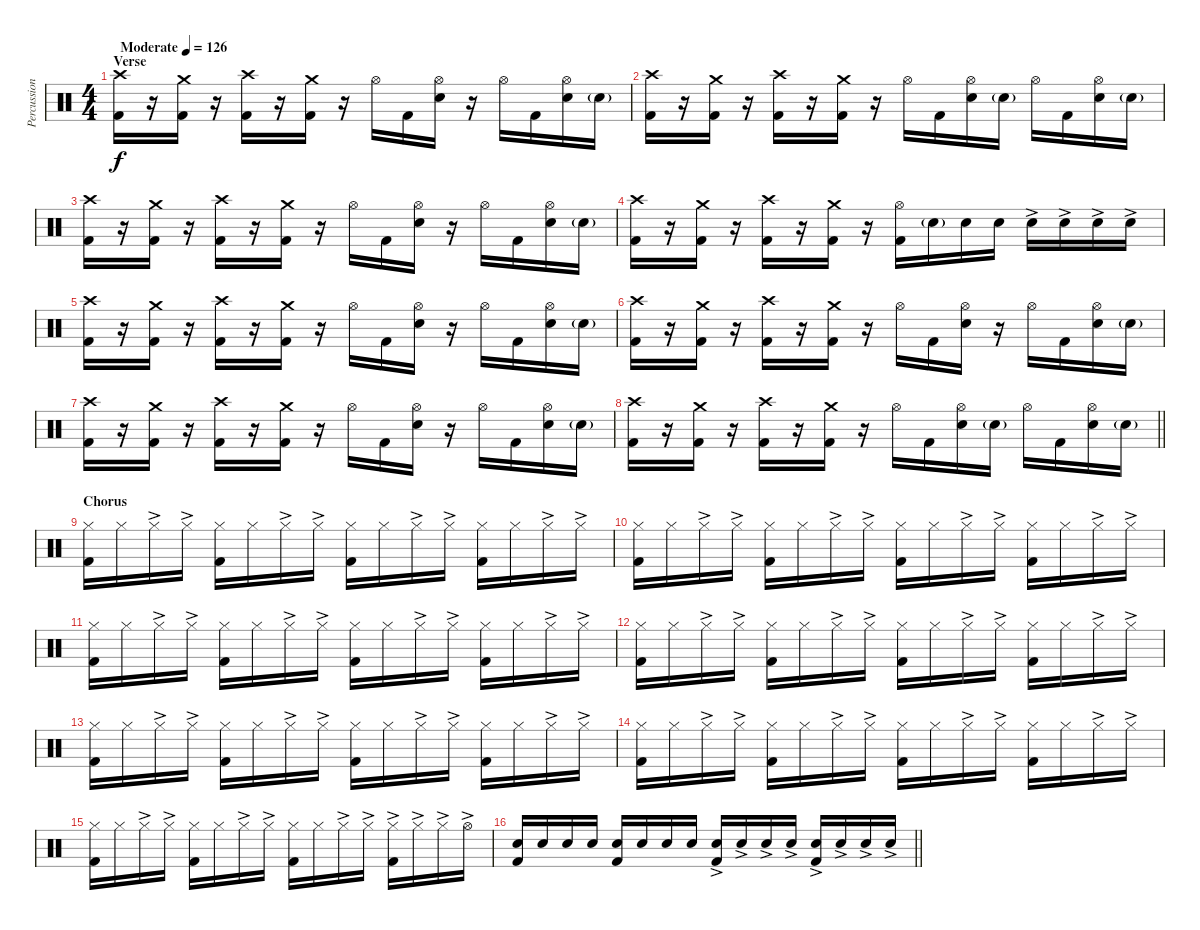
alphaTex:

\track ("Percussion" "Percussion") {instrument percussion}
\staff {score}
\articulation defaults
\ts (4 4)
\section ("" "Verse")
\tempo (126 "Moderate")
\clef neutral
\ks c
("Crash high (hit)" "Kick (hit) 2").16{dy f} r.16 ("Crash medium (hit)" "Kick (hit) 2").16 r.16 ("Crash high (hit)" "Kick (hit) 2").16 r.16 ("Crash medium (hit)" "Kick (hit) 2").16 r.16 "Hi-Hat (open)".16 "Kick (hit) 2".16 ("Hi-Hat (open)" "Electric Snare (hit)").16 r.16 "Hi-Hat (open)".16 "Kick (hit) 2".16 ("Hi-Hat (open)" "Electric Snare (hit)").16 "Electric Snare (hit)"{g}.16 |
("Crash high (hit)" "Kick (hit) 2").16 r.16 ("Crash medium (hit)" "Kick (hit) 2").16 r.16 ("Crash high (hit)" "Kick (hit) 2").16 r.16 ("Crash medium (hit)" "Kick (hit) 2").16 r.16 "Hi-Hat (open)".16 "Kick (hit) 2".16 ("Hi-Hat (open)" "Electric Snare (hit)").16 "Electric Snare (hit)"{g}.16 "Hi-Hat (open)".16 "Kick (hit) 2".16 ("Hi-Hat (open)" "Electric Snare (hit)").16 "Electric Snare (hit)"{g}.16 |
("Crash high (hit)" "Kick (hit) 2").16 r.16 ("Crash medium (hit)" "Kick (hit) 2").16 r.16 ("Crash high (hit)" "Kick (hit) 2").16 r.16 ("Crash medium (hit)" "Kick (hit) 2").16 r.16 "Hi-Hat (open)".16 "Kick (hit) 2".16 ("Hi-Hat (open)" "Electric Snare (hit)").16 r.16 "Hi-Hat (open)".16 "Kick (hit) 2".16 ("Hi-Hat (open)" "Electric Snare (hit)").16 "Electric Snare (hit)"{g}.16 |
("Crash high (hit)" "Kick (hit) 2").16 r.16 ("Crash medium (hit)" "Kick (hit) 2").16 r.16 ("Crash high (hit)" "Kick (hit) 2").16 r.16 ("Crash medium (hit)" "Kick (hit) 2").16 r.16 ("Hi-Hat (open)" "Kick (hit) 2").16 "Electric Snare (hit)"{g}.16 "Electric Snare (hit)".16 "Electric Snare (hit)".16 "Electric Snare (hit)"{ac}.16 "Electric Snare (hit)"{ac}.16 "Electric Snare (hit)"{ac}.16 "Electric Snare (hit)"{ac}.16 |
("Crash high (hit)" "Kick (hit) 2").16 r.16 ("Crash medium (hit)" "Kick (hit) 2").16 r.16 ("Crash high (hit)" "Kick (hit) 2").16 r.16 ("Crash medium (hit)" "Kick (hit) 2").16 r.16 "Hi-Hat (open)".16 "Kick (hit) 2".16 ("Hi-Hat (open)" "Electric Snare (hit)").16 r.16 "Hi-Hat (open)".16 "Kick (hit) 2".16 ("Hi-Hat (open)" "Electric Snare (hit)").16 "Electric Snare (hit)"{g}.16 |
("Crash high (hit)" "Kick (hit) 2").16 r.16 ("Crash medium (hit)" "Kick (hit) 2").16 r.16 ("Crash high (hit)" "Kick (hit) 2").16 r.16 ("Crash medium (hit)" "Kick (hit) 2").16 r.16 "Hi-Hat (open)".16 "Kick (hit) 2".16 ("Hi-Hat (open)" "Electric Snare (hit)").16 r.16 "Hi-Hat (open)".16 "Kick (hit) 2".16 ("Hi-Hat (open)" "Electric Snare (hit)").16 "Electric Snare (hit)"{g}.16 |
("Crash high (hit)" "Kick (hit) 2").16 r.16 ("Crash medium (hit)" "Kick (hit) 2").16 r.16 ("Crash high (hit)" "Kick (hit) 2").16 r.16 ("Crash medium (hit)" "Kick (hit) 2").16 r.16 "Hi-Hat (open)".16 "Kick (hit) 2".16 ("Hi-Hat (open)" "Electric Snare (hit)").16 r.16 "Hi-Hat (open)".16 "Kick (hit) 2".16 ("Hi-Hat (open)" "Electric Snare (hit)").16 "Electric Snare (hit)"{g}.16 |
\barLineRight lightlight
("Crash high (hit)" "Kick (hit) 2").16 r.16 ("Crash medium (hit)" "Kick (hit) 2").16 r.16 ("Crash high (hit)" "Kick (hit) 2").16 r.16 ("Crash medium (hit)" "Kick (hit) 2").16 r.16 "Hi-Hat (open)".16 "Kick (hit) 2".16 ("Hi-Hat (open)" "Electric Snare (hit)").16 "Electric Snare (hit)"{g}.16 "Hi-Hat (open)".16 "Kick (hit) 2".16 ("Hi-Hat (open)" "Electric Snare (hit)").16 "Electric Snare (hit)"{g}.16 |
\section ("" "Chorus")
("Hi-Hat (closed)" "Kick (hit) 2").16 "Hi-Hat (closed)".16 "Hi-Hat (closed)"{ac}.16 "Hi-Hat (closed)"{ac}.16 ("Hi-Hat (closed)" "Kick (hit) 2").16 "Hi-Hat (closed)".16 "Hi-Hat (closed)"{ac}.16 "Hi-Hat (closed)"{ac}.16 ("Hi-Hat (closed)" "Kick (hit) 2").16 "Hi-Hat (closed)".16 "Hi-Hat (closed)"{ac}.16 "Hi-Hat (closed)"{ac}.16 ("Hi-Hat (closed)" "Kick (hit) 2").16 "Hi-Hat (closed)".16 "Hi-Hat (closed)"{ac}.16 "Hi-Hat (closed)"{ac}.16 |
("Hi-Hat (closed)" "Kick (hit) 2").16 "Hi-Hat (closed)".16 "Hi-Hat (closed)"{ac}.16 "Hi-Hat (closed)"{ac}.16 ("Hi-Hat (closed)" "Kick (hit) 2").16 "Hi-Hat (closed)".16 "Hi-Hat (closed)"{ac}.16 "Hi-Hat (closed)"{ac}.16 ("Hi-Hat (closed)" "Kick (hit) 2").16 "Hi-Hat (closed)".16 "Hi-Hat (closed)"{ac}.16 "Hi-Hat (closed)"{ac}.16 ("Hi-Hat (closed)" "Kick (hit) 2").16 "Hi-Hat (closed)".16 "Hi-Hat (closed)"{ac}.16 "Hi-Hat (closed)"{ac}.16 |
("Hi-Hat (closed)" "Kick (hit) 2").16 "Hi-Hat (closed)".16 "Hi-Hat (closed)"{ac}.16 "Hi-Hat (closed)"{ac}.16 ("Hi-Hat (closed)" "Kick (hit) 2").16 "Hi-Hat (closed)".16 "Hi-Hat (closed)"{ac}.16 "Hi-Hat (closed)"{ac}.16 ("Hi-Hat (closed)" "Kick (hit) 2").16 "Hi-Hat (closed)".16 "Hi-Hat (closed)"{ac}.16 "Hi-Hat (closed)"{ac}.16 ("Hi-Hat (closed)" "Kick (hit) 2").16 "Hi-Hat (closed)".16 "Hi-Hat (closed)"{ac}.16 "Hi-Hat (closed)"{ac}.16 |
("Hi-Hat (closed)" "Kick (hit) 2").16 "Hi-Hat (closed)".16 "Hi-Hat (closed)"{ac}.16 "Hi-Hat (closed)"{ac}.16 ("Hi-Hat (closed)" "Kick (hit) 2").16 "Hi-Hat (closed)".16 "Hi-Hat (closed)"{ac}.16 "Hi-Hat (closed)"{ac}.16 ("Hi-Hat (closed)" "Kick (hit) 2").16 "Hi-Hat (closed)".16 "Hi-Hat (closed)"{ac}.16 "Hi-Hat (closed)"{ac}.16 ("Hi-Hat (closed)" "Kick (hit) 2").16 "Hi-Hat (closed)".16 "Hi-Hat (closed)"{ac}.16 "Hi-Hat (closed)"{ac}.16 |
("Hi-Hat (closed)" "Kick (hit) 2").16 "Hi-Hat (closed)".16 "Hi-Hat (closed)"{ac}.16 "Hi-Hat (closed)"{ac}.16 ("Hi-Hat (closed)" "Kick (hit) 2").16 "Hi-Hat (closed)".16 "Hi-Hat (closed)"{ac}.16 "Hi-Hat (closed)"{ac}.16 ("Hi-Hat (closed)" "Kick (hit) 2").16 "Hi-Hat (closed)".16 "Hi-Hat (closed)"{ac}.16 "Hi-Hat (closed)"{ac}.16 ("Hi-Hat (closed)" "Kick (hit) 2").16 "Hi-Hat (closed)".16 "Hi-Hat (closed)"{ac}.16 "Hi-Hat (closed)"{ac}.16 |
("Hi-Hat (closed)" "Kick (hit) 2").16 "Hi-Hat (closed)".16 "Hi-Hat (closed)"{ac}.16 "Hi-Hat (closed)"{ac}.16 ("Hi-Hat (closed)" "Kick (hit) 2").16 "Hi-Hat (closed)".16 "Hi-Hat (closed)"{ac}.16 "Hi-Hat (closed)"{ac}.16 ("Hi-Hat (closed)" "Kick (hit) 2").16 "Hi-Hat (closed)".16 "Hi-Hat (closed)"{ac}.16 "Hi-Hat (closed)"{ac}.16 ("Hi-Hat (closed)" "Kick (hit) 2").16 "Hi-Hat (closed)".16 "Hi-Hat (closed)"{ac}.16 "Hi-Hat (closed)"{ac}.16 |
("Hi-Hat (closed)" "Kick (hit) 2").16 "Hi-Hat (closed)".16 "Hi-Hat (closed)"{ac}.16 "Hi-Hat (closed)"{ac}.16 ("Hi-Hat (closed)" "Kick (hit) 2").16 "Hi-Hat (closed)".16 "Hi-Hat (closed)"{ac}.16 "Hi-Hat (closed)"{ac}.16 ("Hi-Hat (closed)" "Kick (hit) 2").16 "Hi-Hat (closed)".16 "Hi-Hat (closed)"{ac}.16 "Hi-Hat (closed)"{ac}.16 ("Hi-Hat (closed)"{ac} "Kick (hit) 2").16 "Hi-Hat (closed)"{ac}.16 "Hi-Hat (closed)"{ac}.16 "Hi-Hat (open)"{ac}.16 |
\barLineRight lightlight
("Electric Snare (hit)" "Kick (hit) 2").16 "Electric Snare (hit)".16 "Electric Snare (hit)".16 "Electric Snare (hit)".16 ("Electric Snare (hit)" "Kick (hit) 2").16 "Electric Snare (hit)".16 "Electric Snare (hit)".16 "Electric Snare (hit)".16 ("Electric Snare (hit)"{ac} "Kick (hit) 2").16 "Electric Snare (hit)"{ac}.16 "Electric Snare (hit)"{ac}.16 "Electric Snare (hit)"{ac}.16 ("Electric Snare (hit)"{ac} "Kick (hit) 2").16 "Electric Snare (hit)"{ac}.16 "Electric Snare (hit)"{ac}.16 "Electric Snare (hit)"{ac}.16
